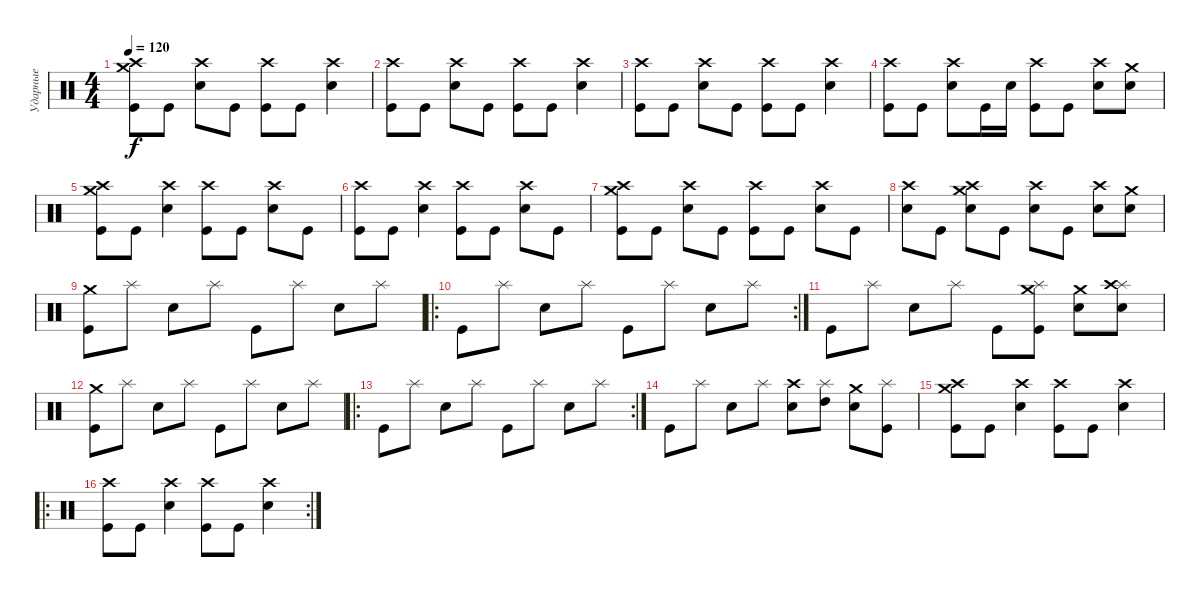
\track ("Ударные" "Ударные") {instrument percussion}
\staff {score}
\articulation defaults
\ts (4 4)
\tempo 120
\clef neutral
\ks c
("Crash medium (hit)" "Crash high (hit)" "Kick (hit)").8{dy f} "Kick (hit)".8 ("Crash high (hit)" "Snare (hit) 2").8 "Kick (hit)".8 ("Crash high (hit)" "Kick (hit)").8 "Kick (hit)".8 ("Crash high (hit)" "Snare (hit) 2").4 |
("Crash high (hit)" "Kick (hit)").8 "Kick (hit)".8 ("Crash high (hit)" "Snare (hit) 2").8 "Kick (hit)".8 ("Crash high (hit)" "Kick (hit)").8 "Kick (hit)".8 ("Crash high (hit)" "Snare (hit) 2").4 |
("Crash high (hit)" "Kick (hit)").8 "Kick (hit)".8 ("Crash high (hit)" "Snare (hit) 2").8 "Kick (hit)".8 ("Crash high (hit)" "Kick (hit)").8 "Kick (hit)".8 ("Crash high (hit)" "Snare (hit) 2").4 |
("Crash high (hit)" "Kick (hit)").8 "Kick (hit)".8 ("Crash high (hit)" "Snare (hit) 2").8 "Kick (hit)".16 "Snare (hit) 2".16 ("Crash high (hit)" "Kick (hit)").8 "Kick (hit)".8 ("Crash high (hit)" "Snare (hit) 2").8 ("Crash medium (hit)" "Snare (hit) 2").8 |
("Crash medium (hit)" "Crash high (hit)" "Kick (hit)").8 "Kick (hit)".8 ("Crash high (hit)" "Snare (hit) 2").4 ("Crash high (hit)" "Kick (hit)").8 "Kick (hit)".8 ("Crash high (hit)" "Snare (hit) 2").8 "Kick (hit)".8 |
("Crash high (hit)" "Kick (hit)").8 "Kick (hit)".8 ("Crash high (hit)" "Snare (hit) 2").4 ("Crash high (hit)" "Kick (hit)").8 "Kick (hit)".8 ("Crash high (hit)" "Snare (hit) 2").8 "Kick (hit)".8 |
("Crash medium (hit)" "Crash high (hit)" "Kick (hit)").8 "Kick (hit)".8 ("Crash high (hit)" "Snare (hit) 2").8 "Kick (hit)".8 ("Crash high (hit)" "Kick (hit)").8 "Kick (hit)".8 ("Crash high (hit)" "Snare (hit) 2").8 "Kick (hit)".8 |
("Crash high (hit)" "Snare (hit) 2").8 "Kick (hit)".8 ("Crash medium (hit)" "Crash high (hit)" "Snare (hit) 2").8 "Kick (hit)".8 ("Crash high (hit)" "Snare (hit) 2").8 "Kick (hit)".8 ("Crash high (hit)" "Snare (hit) 2").8 ("Crash medium (hit)" "Snare (hit) 2").8 |
("Crash medium (hit)" "Kick (hit)").8 "Splash (hit)".8 "Snare (hit) 2".8 "Splash (hit)".8 "Kick (hit)".8 "Splash (hit)".8 "Snare (hit) 2".8 "Splash (hit)".8 |
\ro
\rc 2 "Kick (hit)".8 "Splash (hit)".8 "Snare (hit) 2".8 "Splash (hit)".8 "Kick (hit)".8 "Splash (hit)".8 "Snare (hit) 2".8 "Splash (hit)".8
|
"Kick (hit)".8 "Splash (hit)".8 "Snare (hit) 2".8 "Splash (hit)".8 "Kick (hit)".8 ("Crash medium (hit)" "Splash (hit)" "Kick (hit)").8 ("Crash medium (hit)" "Snare (hit) 2").8 ("Splash (hit)" "Crash high (hit)" "Snare (hit) 2").8 |
("Crash medium (hit)" "Kick (hit)").8 "Splash (hit)".8 "Snare (hit) 2".8 "Splash (hit)".8 "Kick (hit)".8 "Splash (hit)".8 "Snare (hit) 2".8 "Splash (hit)".8 |
\ro
\rc 2 "Kick (hit)".8 "Splash (hit)".8 "Snare (hit) 2".8 "Splash (hit)".8 "Kick (hit)".8 "Splash (hit)".8 "Snare (hit) 2".8 "Splash (hit)".8
|
"Kick (hit)".8 "Splash (hit)".8 "Snare (hit) 2".8 "Splash (hit)".8 ("Crash high (hit)" "Snare (hit) 2").8 ("Splash (hit)" "High Tom (hit)").8 ("Crash medium (hit)" "Snare (hit) 2").8 ("Splash (hit)" "Kick (hit)").8 |
("Crash medium (hit)" "Crash high (hit)" "Kick (hit)").8 "Kick (hit)".8 ("Crash high (hit)" "Snare (hit) 2").4 ("Crash high (hit)" "Kick (hit)").8 "Kick (hit)".8 ("Crash high (hit)" "Snare (hit) 2").4 |
\ro
\rc 2
("Crash high (hit)" "Kick (hit)").8 "Kick (hit)".8 ("Crash high (hit)" "Snare (hit) 2").4 ("Crash high (hit)" "Kick (hit)").8 "Kick (hit)".8 ("Crash high (hit)" "Snare (hit) 2").4
